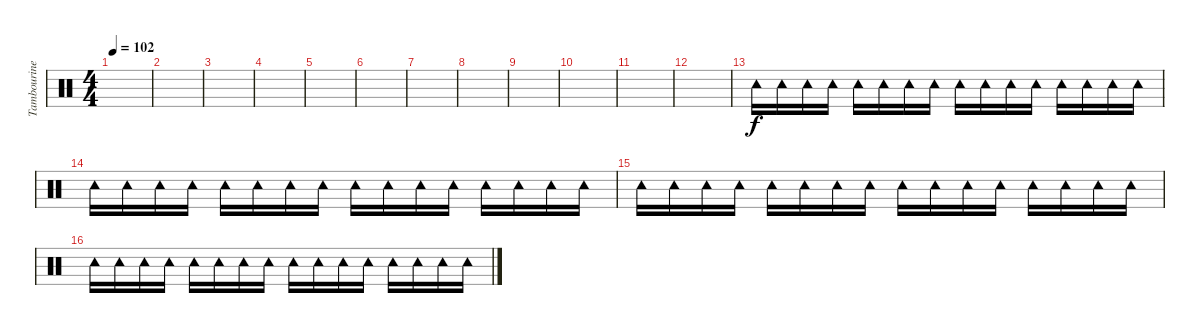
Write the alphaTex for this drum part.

\track ("Tambourine" "Tambourine") {instrument percussion}
\staff {score}
\articulation defaults
\ts (4 4)
\tempo 102
\clef neutral
\ks c
|
|
|
|
|
|
|
|
|
|
|
|
"Tambourine (hit)".16 "Tambourine (hit)".16 "Tambourine (hit)".16 "Tambourine (hit)".16 "Tambourine (hit)".16 "Tambourine (hit)".16 "Tambourine (hit)".16 "Tambourine (hit)".16 "Tambourine (hit)".16 "Tambourine (hit)".16 "Tambourine (hit)".16 "Tambourine (hit)".16 "Tambourine (hit)".16 "Tambourine (hit)".16 "Tambourine (hit)".16 "Tambourine (hit)".16 |
"Tambourine (hit)".16 "Tambourine (hit)".16 "Tambourine (hit)".16 "Tambourine (hit)".16 "Tambourine (hit)".16 "Tambourine (hit)".16 "Tambourine (hit)".16 "Tambourine (hit)".16 "Tambourine (hit)".16 "Tambourine (hit)".16 "Tambourine (hit)".16 "Tambourine (hit)".16 "Tambourine (hit)".16 "Tambourine (hit)".16 "Tambourine (hit)".16 "Tambourine (hit)".16 |
"Tambourine (hit)".16 "Tambourine (hit)".16 "Tambourine (hit)".16 "Tambourine (hit)".16 "Tambourine (hit)".16 "Tambourine (hit)".16 "Tambourine (hit)".16 "Tambourine (hit)".16 "Tambourine (hit)".16 "Tambourine (hit)".16 "Tambourine (hit)".16 "Tambourine (hit)".16 "Tambourine (hit)".16 "Tambourine (hit)".16 "Tambourine (hit)".16 "Tambourine (hit)".16 |
"Tambourine (hit)".16 "Tambourine (hit)".16 "Tambourine (hit)".16 "Tambourine (hit)".16 "Tambourine (hit)".16 "Tambourine (hit)".16 "Tambourine (hit)".16 "Tambourine (hit)".16 "Tambourine (hit)".16 "Tambourine (hit)".16 "Tambourine (hit)".16 "Tambourine (hit)".16 "Tambourine (hit)".16 "Tambourine (hit)".16 "Tambourine (hit)".16 "Tambourine (hit)".16
